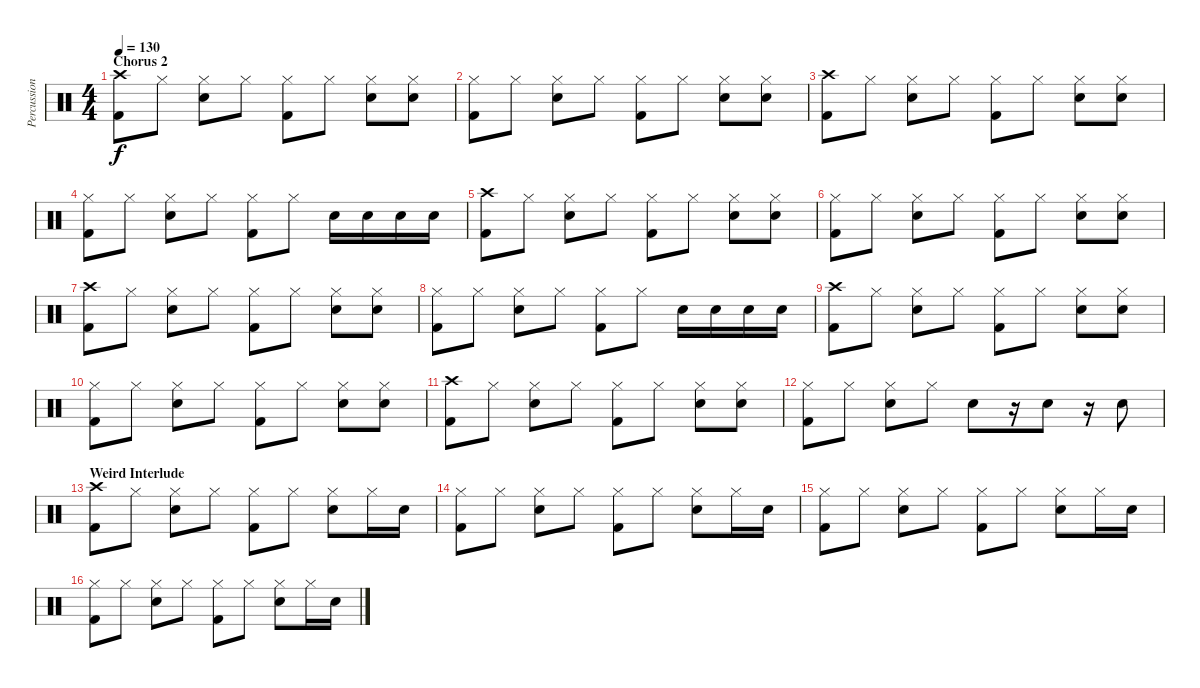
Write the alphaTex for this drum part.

\track ("Percussion" "Percussion") {instrument percussion}
\staff {score}
\articulation defaults
\ts (4 4)
\section ("" "Chorus 2")
\tempo 130
\clef neutral
\ks c
("Crash high (hit)" "Kick (hit) 2").8{dy f} "Hi-Hat (closed)".8 ("Hi-Hat (closed)" "Electric Snare (hit)").8 "Hi-Hat (closed)".8 ("Hi-Hat (closed)" "Kick (hit) 2").8 "Hi-Hat (closed)".8 ("Hi-Hat (closed)" "Electric Snare (hit)").8 ("Hi-Hat (closed)" "Electric Snare (hit)").8 |
("Hi-Hat (closed)" "Kick (hit) 2").8 "Hi-Hat (closed)".8 ("Hi-Hat (closed)" "Electric Snare (hit)").8 "Hi-Hat (closed)".8 ("Hi-Hat (closed)" "Kick (hit) 2").8 "Hi-Hat (closed)".8 ("Hi-Hat (closed)" "Electric Snare (hit)").8 ("Hi-Hat (closed)" "Electric Snare (hit)").8 |
("Crash high (hit)" "Kick (hit) 2").8 "Hi-Hat (closed)".8 ("Hi-Hat (closed)" "Electric Snare (hit)").8 "Hi-Hat (closed)".8 ("Hi-Hat (closed)" "Kick (hit) 2").8 "Hi-Hat (closed)".8 ("Hi-Hat (closed)" "Electric Snare (hit)").8 ("Hi-Hat (closed)" "Electric Snare (hit)").8 |
("Hi-Hat (closed)" "Kick (hit) 2").8 "Hi-Hat (closed)".8 ("Hi-Hat (closed)" "Electric Snare (hit)").8 "Hi-Hat (closed)".8 ("Hi-Hat (closed)" "Kick (hit) 2").8 "Hi-Hat (closed)".8 "Electric Snare (hit)".16 "Electric Snare (hit)".16 "Electric Snare (hit)".16 "Electric Snare (hit)".16 |
("Crash high (hit)" "Kick (hit) 2").8 "Hi-Hat (closed)".8 ("Hi-Hat (closed)" "Electric Snare (hit)").8 "Hi-Hat (closed)".8 ("Hi-Hat (closed)" "Kick (hit) 2").8 "Hi-Hat (closed)".8 ("Hi-Hat (closed)" "Electric Snare (hit)").8 ("Hi-Hat (closed)" "Electric Snare (hit)").8 |
("Hi-Hat (closed)" "Kick (hit) 2").8 "Hi-Hat (closed)".8 ("Hi-Hat (closed)" "Electric Snare (hit)").8 "Hi-Hat (closed)".8 ("Hi-Hat (closed)" "Kick (hit) 2").8 "Hi-Hat (closed)".8 ("Hi-Hat (closed)" "Electric Snare (hit)").8 ("Hi-Hat (closed)" "Electric Snare (hit)").8 |
("Crash high (hit)" "Kick (hit) 2").8 "Hi-Hat (closed)".8 ("Hi-Hat (closed)" "Electric Snare (hit)").8 "Hi-Hat (closed)".8 ("Hi-Hat (closed)" "Kick (hit) 2").8 "Hi-Hat (closed)".8 ("Hi-Hat (closed)" "Electric Snare (hit)").8 ("Hi-Hat (closed)" "Electric Snare (hit)").8 |
("Hi-Hat (closed)" "Kick (hit) 2").8 "Hi-Hat (closed)".8 ("Hi-Hat (closed)" "Electric Snare (hit)").8 "Hi-Hat (closed)".8 ("Hi-Hat (closed)" "Kick (hit) 2").8 "Hi-Hat (closed)".8 "Electric Snare (hit)".16 "Electric Snare (hit)".16 "Electric Snare (hit)".16 "Electric Snare (hit)".16 |
("Crash high (hit)" "Kick (hit) 2").8 "Hi-Hat (closed)".8 ("Hi-Hat (closed)" "Electric Snare (hit)").8 "Hi-Hat (closed)".8 ("Hi-Hat (closed)" "Kick (hit) 2").8 "Hi-Hat (closed)".8 ("Hi-Hat (closed)" "Electric Snare (hit)").8 ("Hi-Hat (closed)" "Electric Snare (hit)").8 |
("Hi-Hat (closed)" "Kick (hit) 2").8 "Hi-Hat (closed)".8 ("Hi-Hat (closed)" "Electric Snare (hit)").8 "Hi-Hat (closed)".8 ("Hi-Hat (closed)" "Kick (hit) 2").8 "Hi-Hat (closed)".8 ("Hi-Hat (closed)" "Electric Snare (hit)").8 ("Hi-Hat (closed)" "Electric Snare (hit)").8 |
("Crash high (hit)" "Kick (hit) 2").8 "Hi-Hat (closed)".8 ("Hi-Hat (closed)" "Electric Snare (hit)").8 "Hi-Hat (closed)".8 ("Hi-Hat (closed)" "Kick (hit) 2").8 "Hi-Hat (closed)".8 ("Hi-Hat (closed)" "Electric Snare (hit)").8 ("Hi-Hat (closed)" "Electric Snare (hit)").8 |
("Hi-Hat (closed)" "Kick (hit) 2").8 "Hi-Hat (closed)".8 ("Hi-Hat (closed)" "Electric Snare (hit)").8 "Hi-Hat (closed)".8 "Electric Snare (hit)".8 r.16 "Electric Snare (hit)".8 r.16 "Electric Snare (hit)".8 |
\section ("" "Weird Interlude")
("Crash high (hit)" "Kick (hit) 2").8 "Hi-Hat (closed)".8 ("Hi-Hat (closed)" "Electric Snare (hit)").8 "Hi-Hat (closed)".8 ("Hi-Hat (closed)" "Kick (hit) 2").8 "Hi-Hat (closed)".8 ("Hi-Hat (closed)" "Electric Snare (hit)").8 "Hi-Hat (closed)".16 "Electric Snare (hit)".16 |
("Hi-Hat (closed)" "Kick (hit) 2").8 "Hi-Hat (closed)".8 ("Hi-Hat (closed)" "Electric Snare (hit)").8 "Hi-Hat (closed)".8 ("Hi-Hat (closed)" "Kick (hit) 2").8 "Hi-Hat (closed)".8 ("Hi-Hat (closed)" "Electric Snare (hit)").8 "Hi-Hat (closed)".16 "Electric Snare (hit)".16 |
("Hi-Hat (closed)" "Kick (hit) 2").8 "Hi-Hat (closed)".8 ("Hi-Hat (closed)" "Electric Snare (hit)").8 "Hi-Hat (closed)".8 ("Hi-Hat (closed)" "Kick (hit) 2").8 "Hi-Hat (closed)".8 ("Hi-Hat (closed)" "Electric Snare (hit)").8 "Hi-Hat (closed)".16 "Electric Snare (hit)".16 |
("Hi-Hat (closed)" "Kick (hit) 2").8 "Hi-Hat (closed)".8 ("Hi-Hat (closed)" "Electric Snare (hit)").8 "Hi-Hat (closed)".8 ("Hi-Hat (closed)" "Kick (hit) 2").8 "Hi-Hat (closed)".8 ("Hi-Hat (closed)" "Electric Snare (hit)").8 "Hi-Hat (closed)".16 "Electric Snare (hit)".16
